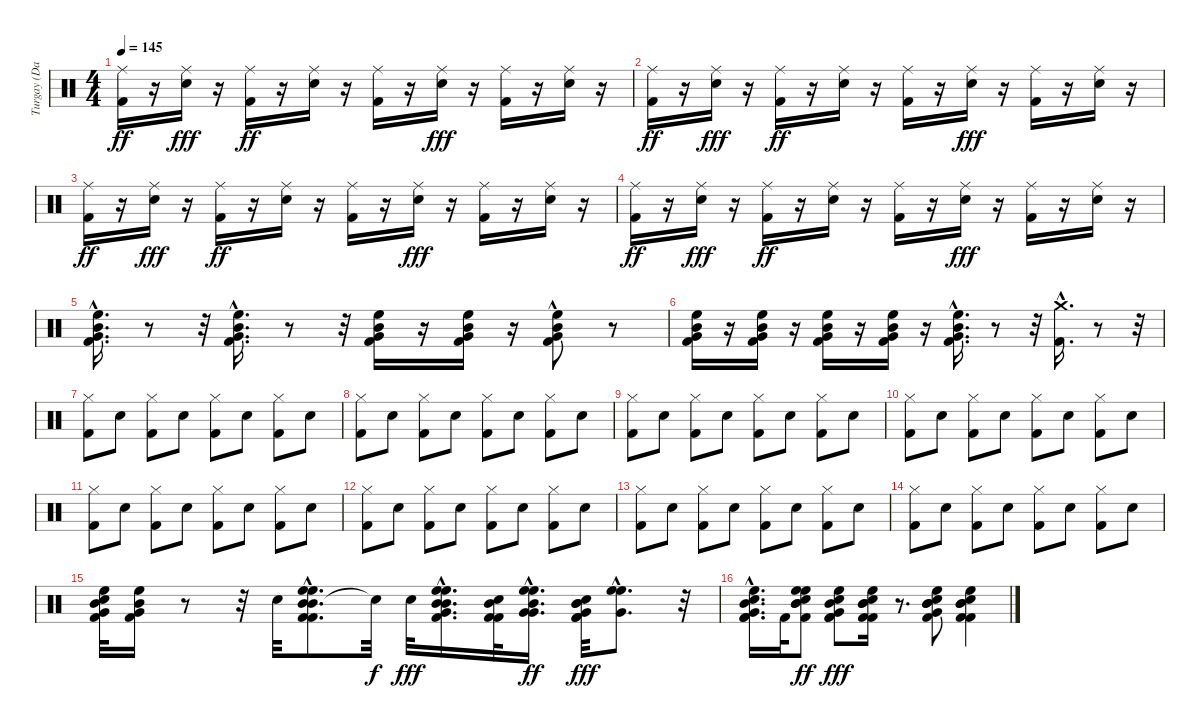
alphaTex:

\track ("Turgay (Davul)" "Turgay (Da") {instrument percussion}
\staff {score}
\articulation defaults
\ts (4 4)
\tempo 145
\clef neutral
\ks c
("Ride (middle)" "Kick (hit) 2").16{dy ff} r.16 ("Electric Snare (hit)" "Ride (middle)").16{dy fff} r.16 ("Kick (hit) 2" "Ride (middle)").16{dy ff} r.16 ("Electric Snare (hit)" "Ride (middle)").16 r.16 ("Kick (hit) 2" "Ride (middle)").16 r.16 ("Electric Snare (hit)" "Ride (middle)").16{dy fff} r.16 ("Kick (hit) 2" "Ride (middle)").16 r.16 ("Electric Snare (hit)" "Ride (middle)").16 r.16 |
("Ride (middle)" "Kick (hit) 2").16{dy ff} r.16 ("Electric Snare (hit)" "Ride (middle)").16{dy fff} r.16 ("Kick (hit) 2" "Ride (middle)").16{dy ff} r.16 ("Electric Snare (hit)" "Ride (middle)").16 r.16 ("Kick (hit) 2" "Ride (middle)").16 r.16 ("Electric Snare (hit)" "Ride (middle)").16{dy fff} r.16 ("Kick (hit) 2" "Ride (middle)").16 r.16 ("Electric Snare (hit)" "Ride (middle)").16 r.16 |
("Ride (middle)" "Kick (hit) 2").16{dy ff} r.16 ("Electric Snare (hit)" "Ride (middle)").16{dy fff} r.16 ("Kick (hit) 2" "Ride (middle)").16{dy ff} r.16 ("Electric Snare (hit)" "Ride (middle)").16 r.16 ("Kick (hit) 2" "Ride (middle)").16 r.16 ("Electric Snare (hit)" "Ride (middle)").16{dy fff} r.16 ("Kick (hit) 2" "Ride (middle)").16 r.16 ("Electric Snare (hit)" "Ride (middle)").16 r.16 |
("Ride (middle)" "Kick (hit) 2").16{dy ff} r.16 ("Electric Snare (hit)" "Ride (middle)").16{dy fff} r.16 ("Kick (hit) 2" "Ride (middle)").16{dy ff} r.16 ("Electric Snare (hit)" "Ride (middle)").16 r.16 ("Kick (hit) 2" "Ride (middle)").16 r.16 ("Electric Snare (hit)" "Ride (middle)").16{dy fff} r.16 ("Kick (hit) 2" "Ride (middle)").16 r.16 ("Electric Snare (hit)" "Ride (middle)").16 r.16 |
("Mid Tom (hit)" "Very Low Tom (hit)" "High Floor Tom (hit)"{hac} "Kick (hit) 2").16{d} r.8 r.32 ("Kick (hit) 2" "Mid Tom (hit)" "Very Low Tom (hit)"{hac} "High Floor Tom (hit)"{hac}).16{d} r.8 r.32 ("Kick (hit) 2" "Mid Tom (hit)" "High Floor Tom (hit)" "Very Low Tom (hit)").16 r.16 ("Kick (hit) 2" "Mid Tom (hit)" "Very Low Tom (hit)" "High Floor Tom (hit)").16 r.16 ("Kick (hit) 2"{hac} "Very Low Tom (hit)" "Mid Tom (hit)"{hac} "High Floor Tom (hit)"{hac}).8 r.8 |
("Kick (hit) 2" "Very Low Tom (hit)" "Mid Tom (hit)" "High Floor Tom (hit)").16 r.16 ("Kick (hit) 2" "Very Low Tom (hit)" "Mid Tom (hit)" "High Floor Tom (hit)").16 r.16 ("Kick (hit) 2" "Very Low Tom (hit)" "Mid Tom (hit)" "High Floor Tom (hit)").16 r.16 ("Kick (hit) 2" "Very Low Tom (hit)" "High Floor Tom (hit)" "Mid Tom (hit)").16 r.16 ("Very Low Tom (hit)"{hac} "Kick (hit) 2"{hac} "Mid Tom (hit)"{hac} "High Floor Tom (hit)"{hac}).16{d} r.8 r.32 ("Kick (hit) 2"{hac} "Crash medium (hit)").16{d} r.8 r.32 |
("Kick (hit) 2" "Hi-Hat (closed)").8 "Electric Snare (hit)".8 ("Kick (hit) 2" "Hi-Hat (closed)").8 "Electric Snare (hit)".8 ("Kick (hit) 2" "Hi-Hat (closed)").8 "Electric Snare (hit)".8 ("Kick (hit) 2" "Hi-Hat (closed)").8 "Electric Snare (hit)".8 |
("Kick (hit) 2" "Hi-Hat (closed)").8 "Electric Snare (hit)".8 ("Kick (hit) 2" "Hi-Hat (closed)").8 "Electric Snare (hit)".8 ("Kick (hit) 2" "Hi-Hat (closed)").8 "Electric Snare (hit)".8 ("Kick (hit) 2" "Hi-Hat (closed)").8 "Electric Snare (hit)".8 |
("Kick (hit) 2" "Hi-Hat (closed)").8 "Electric Snare (hit)".8 ("Kick (hit) 2" "Hi-Hat (closed)").8 "Electric Snare (hit)".8 ("Kick (hit) 2" "Hi-Hat (closed)").8 "Electric Snare (hit)".8 ("Kick (hit) 2" "Hi-Hat (closed)").8 "Electric Snare (hit)".8 |
("Hi-Hat (closed)" "Kick (hit) 2").8 "Electric Snare (hit)".8 ("Hi-Hat (closed)" "Kick (hit) 2").8 "Electric Snare (hit)".8 ("Hi-Hat (closed)" "Kick (hit) 2").8 "Electric Snare (hit)".8 ("Hi-Hat (closed)" "Kick (hit) 2").8 "Electric Snare (hit)".8 |
("Kick (hit) 2" "Hi-Hat (closed)").8 "Electric Snare (hit)".8 ("Kick (hit) 2" "Hi-Hat (closed)").8 "Electric Snare (hit)".8 ("Kick (hit) 2" "Hi-Hat (closed)").8 "Electric Snare (hit)".8 ("Kick (hit) 2" "Hi-Hat (closed)").8 "Electric Snare (hit)".8 |
("Kick (hit) 2" "Hi-Hat (closed)").8 "Electric Snare (hit)".8 ("Kick (hit) 2" "Hi-Hat (closed)").8 "Electric Snare (hit)".8 ("Kick (hit) 2" "Hi-Hat (closed)").8 "Electric Snare (hit)".8 ("Kick (hit) 2" "Hi-Hat (closed)").8 "Electric Snare (hit)".8 |
("Kick (hit) 2" "Hi-Hat (closed)").8 "Electric Snare (hit)".8 ("Kick (hit) 2" "Hi-Hat (closed)").8 "Electric Snare (hit)".8 ("Kick (hit) 2" "Hi-Hat (closed)").8 "Electric Snare (hit)".8 ("Kick (hit) 2" "Hi-Hat (closed)").8 "Electric Snare (hit)".8 |
("Hi-Hat (closed)" "Kick (hit) 2").8 "Electric Snare (hit)".8 ("Hi-Hat (closed)" "Kick (hit) 2").8 "Electric Snare (hit)".8 ("Hi-Hat (closed)" "Kick (hit) 2").8 "Electric Snare (hit)".8 ("Hi-Hat (closed)" "Kick (hit) 2").8 "Electric Snare (hit)".8 |
("Electric Snare (hit)" "Kick (hit) 2" "Mid Tom (hit)" "High Floor Tom (hit)" "Very Low Tom (hit)").32 ("Mid Tom (hit)" "Very Low Tom (hit)" "High Floor Tom (hit)" "Kick (hit) 2").16 r.8 r.32 "Electric Snare (hit)".32 ("Mid Tom (hit)"{hac} "High Floor Tom (hit)" "Mid Tom (hit)" "High Floor Tom (hit)" "Kick (hit) 2" "Kick (hit) 2").8{d} "Snare (hit)"{t}.32{dy f} "Electric Snare (hit)".32{dy fff} ("Mid Tom (hit)"{hac} "Very Low Tom (hit)"{hac} "Kick (hit) 2"{hac} "High Floor Tom (hit)"{hac} "Mid Tom (hit)" "High Floor Tom (hit)").16{d} ("Electric Snare (hit)" "Kick (hit) 2" "Kick (hit) 2" "Mid Tom (hit)").32 ("High Floor Tom (hit)"{hac} "Very Low Tom (hit)"{hac} "Mid Tom (hit)" "High Floor Tom (hit)" "Very Low Tom (hit)").16{d dy ff} ("Electric Snare (hit)" "Kick (hit) 2" "Kick (hit) 2" "Mid Tom (hit)" "Mid Tom (hit)" "Very Low Tom (hit)").32{dy fff} ("High Floor Tom (hit)" "High Floor Tom (hit)" "Very Low Tom (hit)"{hac}).8{d} r.32 |
("Electric Snare (hit)" "Kick (hit) 2" "Kick (hit) 2" "Mid Tom (hit)"{hac} "High Floor Tom (hit)" "Very Low Tom (hit)"{hac}).16{d} "Kick (hit) 2".32 ("Kick (hit) 2" "Electric Snare (hit)" "High Floor Tom (hit)" "Mid Tom (hit)" "Mid Tom (hit)" "High Floor Tom (hit)").8{dy ff} ("Kick (hit) 2" "Kick (hit) 2" "High Floor Tom (hit)" "Mid Tom (hit)" "Electric Snare (hit)" "Very Low Tom (hit)").8{dy fff} ("Kick (hit) 2" "Kick (hit) 2" "Electric Snare (hit)" "High Floor Tom (hit)" "Mid Tom (hit)" "Mid Tom (hit)").16 r.8{d} ("Electric Snare (hit)" "Mid Tom (hit)" "Very Low Tom (hit)" "High Floor Tom (hit)" "Kick (hit) 2" "Mid Tom (hit)").8 ("Electric Snare (hit)" "Kick (hit) 2" "Kick (hit) 2" "Mid Tom (hit)" "High Floor Tom (hit)" "Mid Tom (hit)").4
